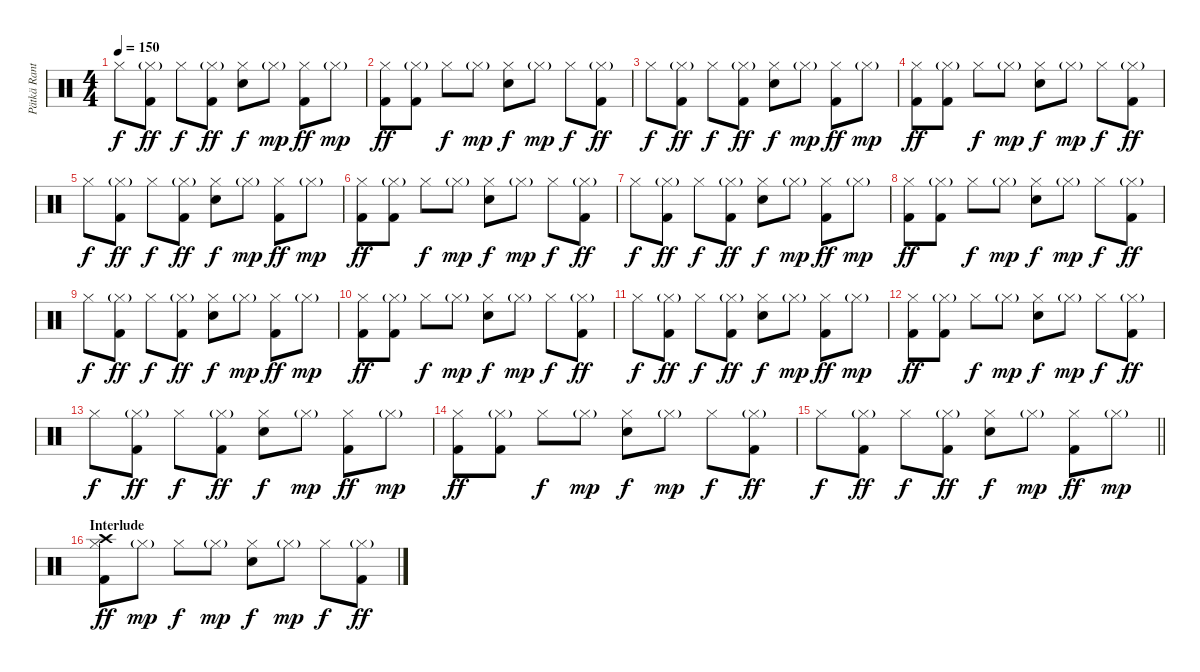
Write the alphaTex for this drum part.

\track ("Pätkä Rantala (Drums)" "Pätkä Rant") {instrument percussion}
\staff {score}
\articulation defaults
\ts (4 4)
\tempo 150
\clef neutral
\ks c "Hi-Hat (closed)".8{dy f}
("Hi-Hat (closed)"{g} "Kick (hit) 2").8{dy ff} "Hi-Hat (closed)".8{dy f} ("Hi-Hat (closed)"{g} "Kick (hit) 2").8{dy ff} ("Hi-Hat (closed)" "Snare (hit) 2").8{dy f} "Hi-Hat (closed)"{g}.8{dy mp} ("Hi-Hat (closed)" "Kick (hit) 2").8{dy ff} "Hi-Hat (closed)"{g}.8{dy mp} |
("Hi-Hat (closed)" "Kick (hit) 2").8{dy ff} ("Hi-Hat (closed)"{g} "Kick (hit) 2").8 "Hi-Hat (closed)".8{dy f} "Hi-Hat (closed)"{g}.8{dy mp} ("Hi-Hat (closed)" "Snare (hit) 2").8{dy f} "Hi-Hat (closed)"{g}.8{dy mp} "Hi-Hat (closed)".8{dy f} ("Hi-Hat (closed)"{g} "Kick (hit) 2").8{dy ff} |
"Hi-Hat (closed)".8{dy f} ("Hi-Hat (closed)"{g} "Kick (hit) 2").8{dy ff} "Hi-Hat (closed)".8{dy f} ("Hi-Hat (closed)"{g} "Kick (hit) 2").8{dy ff} ("Hi-Hat (closed)" "Snare (hit) 2").8{dy f} "Hi-Hat (closed)"{g}.8{dy mp} ("Hi-Hat (closed)" "Kick (hit) 2").8{dy ff} "Hi-Hat (closed)"{g}.8{dy mp} |
("Hi-Hat (closed)" "Kick (hit) 2").8{dy ff} ("Hi-Hat (closed)"{g} "Kick (hit) 2").8 "Hi-Hat (closed)".8{dy f} "Hi-Hat (closed)"{g}.8{dy mp} ("Hi-Hat (closed)" "Snare (hit) 2").8{dy f} "Hi-Hat (closed)"{g}.8{dy mp} "Hi-Hat (closed)".8{dy f} ("Hi-Hat (closed)"{g} "Kick (hit) 2").8{dy ff} |
"Hi-Hat (closed)".8{dy f} ("Hi-Hat (closed)"{g} "Kick (hit) 2").8{dy ff} "Hi-Hat (closed)".8{dy f} ("Hi-Hat (closed)"{g} "Kick (hit) 2").8{dy ff} ("Hi-Hat (closed)" "Snare (hit) 2").8{dy f} "Hi-Hat (closed)"{g}.8{dy mp} ("Hi-Hat (closed)" "Kick (hit) 2").8{dy ff} "Hi-Hat (closed)"{g}.8{dy mp} |
("Hi-Hat (closed)" "Kick (hit) 2").8{dy ff} ("Hi-Hat (closed)"{g} "Kick (hit) 2").8 "Hi-Hat (closed)".8{dy f} "Hi-Hat (closed)"{g}.8{dy mp} ("Hi-Hat (closed)" "Snare (hit) 2").8{dy f} "Hi-Hat (closed)"{g}.8{dy mp} "Hi-Hat (closed)".8{dy f} ("Hi-Hat (closed)"{g} "Kick (hit) 2").8{dy ff} |
"Hi-Hat (closed)".8{dy f} ("Hi-Hat (closed)"{g} "Kick (hit) 2").8{dy ff} "Hi-Hat (closed)".8{dy f} ("Hi-Hat (closed)"{g} "Kick (hit) 2").8{dy ff} ("Hi-Hat (closed)" "Snare (hit) 2").8{dy f} "Hi-Hat (closed)"{g}.8{dy mp} ("Hi-Hat (closed)" "Kick (hit) 2").8{dy ff} "Hi-Hat (closed)"{g}.8{dy mp} |
("Hi-Hat (closed)" "Kick (hit) 2").8{dy ff} ("Hi-Hat (closed)"{g} "Kick (hit) 2").8 "Hi-Hat (closed)".8{dy f} "Hi-Hat (closed)"{g}.8{dy mp} ("Hi-Hat (closed)" "Snare (hit) 2").8{dy f} "Hi-Hat (closed)"{g}.8{dy mp} "Hi-Hat (closed)".8{dy f} ("Hi-Hat (closed)"{g} "Kick (hit) 2").8{dy ff} |
"Hi-Hat (closed)".8{dy f} ("Hi-Hat (closed)"{g} "Kick (hit) 2").8{dy ff} "Hi-Hat (closed)".8{dy f} ("Hi-Hat (closed)"{g} "Kick (hit) 2").8{dy ff} ("Hi-Hat (closed)" "Snare (hit) 2").8{dy f} "Hi-Hat (closed)"{g}.8{dy mp} ("Hi-Hat (closed)" "Kick (hit) 2").8{dy ff} "Hi-Hat (closed)"{g}.8{dy mp} |
("Hi-Hat (closed)" "Kick (hit) 2").8{dy ff} ("Hi-Hat (closed)"{g} "Kick (hit) 2").8 "Hi-Hat (closed)".8{dy f} "Hi-Hat (closed)"{g}.8{dy mp} ("Hi-Hat (closed)" "Snare (hit) 2").8{dy f} "Hi-Hat (closed)"{g}.8{dy mp} "Hi-Hat (closed)".8{dy f} ("Hi-Hat (closed)"{g} "Kick (hit) 2").8{dy ff} |
"Hi-Hat (closed)".8{dy f} ("Hi-Hat (closed)"{g} "Kick (hit) 2").8{dy ff} "Hi-Hat (closed)".8{dy f} ("Hi-Hat (closed)"{g} "Kick (hit) 2").8{dy ff} ("Hi-Hat (closed)" "Snare (hit) 2").8{dy f} "Hi-Hat (closed)"{g}.8{dy mp} ("Hi-Hat (closed)" "Kick (hit) 2").8{dy ff} "Hi-Hat (closed)"{g}.8{dy mp} |
("Hi-Hat (closed)" "Kick (hit) 2").8{dy ff} ("Hi-Hat (closed)"{g} "Kick (hit) 2").8 "Hi-Hat (closed)".8{dy f} "Hi-Hat (closed)"{g}.8{dy mp} ("Hi-Hat (closed)" "Snare (hit) 2").8{dy f} "Hi-Hat (closed)"{g}.8{dy mp} "Hi-Hat (closed)".8{dy f} ("Hi-Hat (closed)"{g} "Kick (hit) 2").8{dy ff} |
"Hi-Hat (closed)".8{dy f} ("Hi-Hat (closed)"{g} "Kick (hit) 2").8{dy ff} "Hi-Hat (closed)".8{dy f} ("Hi-Hat (closed)"{g} "Kick (hit) 2").8{dy ff} ("Hi-Hat (closed)" "Snare (hit) 2").8{dy f} "Hi-Hat (closed)"{g}.8{dy mp} ("Hi-Hat (closed)" "Kick (hit) 2").8{dy ff} "Hi-Hat (closed)"{g}.8{dy mp} |
("Hi-Hat (closed)" "Kick (hit) 2").8{dy ff} ("Hi-Hat (closed)"{g} "Kick (hit) 2").8 "Hi-Hat (closed)".8{dy f} "Hi-Hat (closed)"{g}.8{dy mp} ("Hi-Hat (closed)" "Snare (hit) 2").8{dy f} "Hi-Hat (closed)"{g}.8{dy mp} "Hi-Hat (closed)".8{dy f} ("Hi-Hat (closed)"{g} "Kick (hit) 2").8{dy ff} |
\barLineRight lightlight "Hi-Hat (closed)".8{dy f}
("Hi-Hat (closed)"{g} "Kick (hit) 2").8{dy ff} "Hi-Hat (closed)".8{dy f} ("Hi-Hat (closed)"{g} "Kick (hit) 2").8{dy ff} ("Hi-Hat (closed)" "Snare (hit) 2").8{dy f} "Hi-Hat (closed)"{g}.8{dy mp} ("Hi-Hat (closed)" "Kick (hit) 2").8{dy ff} "Hi-Hat (closed)"{g}.8{dy mp} |
\section ("" "Interlude")
("Crash high (hit)" "Hi-Hat (closed)" "Kick (hit) 2").8{dy ff} "Hi-Hat (closed)"{g}.8{dy mp} "Hi-Hat (closed)".8{dy f} "Hi-Hat (closed)"{g}.8{dy mp} ("Hi-Hat (closed)" "Snare (hit) 2").8{dy f} "Hi-Hat (closed)"{g}.8{dy mp} "Hi-Hat (closed)".8{dy f} ("Hi-Hat (closed)"{g} "Kick (hit) 2").8{dy ff}
